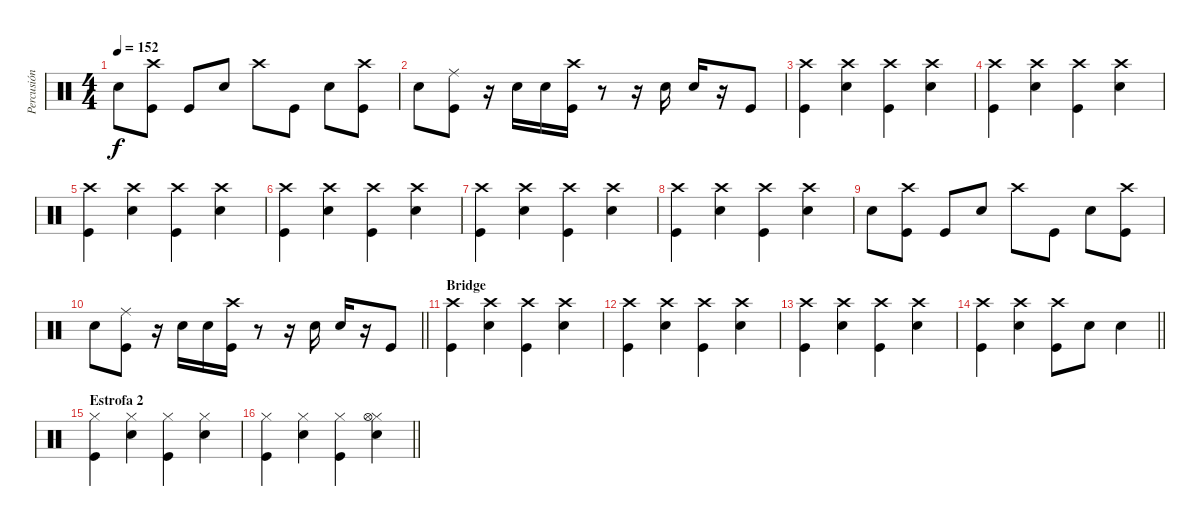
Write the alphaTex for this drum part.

\track ("Percusión" "Percusión") {instrument percussion}
\staff {score}
\articulation defaults
\ts (4 4)
\tempo 152
\clef neutral
\ks c "Snare (hit) 2".8{dy f}
("Kick (hit)" "Crash high (hit)").8 "Kick (hit)".8 "Snare (hit) 2".8 "Crash high (hit)".8 "Kick (hit)".8 "Snare (hit) 2".8 ("Kick (hit)" "Crash high (hit)").8 |
"Snare (hit) 2".8 ("Kick (hit)" "Ride (middle)").8 r.16 "Snare (hit) 2".16 "Snare (hit) 2".16 ("Kick (hit)" "Crash high (hit)").16 r.8 r.16 "Snare (hit) 2".16 "Snare (hit) 2".16 r.16 "Kick (hit)".8 |
("Crash high (hit)" "Kick (hit)").4 ("Snare (hit) 2" "Crash high (hit)").4 ("Crash high (hit)" "Kick (hit)").4 ("Crash high (hit)" "Snare (hit) 2").4 |
("Crash high (hit)" "Kick (hit)").4 ("Crash high (hit)" "Snare (hit) 2").4 ("Crash high (hit)" "Kick (hit)").4 ("Crash high (hit)" "Snare (hit) 2").4 |
("Crash high (hit)" "Kick (hit)").4 ("Crash high (hit)" "Snare (hit) 2").4 ("Crash high (hit)" "Kick (hit)").4 ("Crash high (hit)" "Snare (hit) 2").4 |
("Crash high (hit)" "Kick (hit)").4 ("Crash high (hit)" "Snare (hit) 2").4 ("Crash high (hit)" "Kick (hit)").4 ("Crash high (hit)" "Snare (hit) 2").4 |
("Kick (hit)" "Crash high (hit)").4 ("Crash high (hit)" "Snare (hit) 2").4 ("Crash high (hit)" "Kick (hit)").4 ("Crash high (hit)" "Snare (hit) 2").4 |
("Crash high (hit)" "Kick (hit)").4 ("Crash high (hit)" "Snare (hit) 2").4 ("Crash high (hit)" "Kick (hit)").4 ("Crash high (hit)" "Snare (hit) 2").4 |
"Snare (hit) 2".8 ("Kick (hit)" "Crash high (hit)").8 "Kick (hit)".8 "Snare (hit) 2".8 "Crash high (hit)".8 "Kick (hit)".8 "Snare (hit) 2".8 ("Kick (hit)" "Crash high (hit)").8 |
\barLineRight lightlight "Snare (hit) 2".8
("Kick (hit)" "Ride (middle)").8 r.16 "Snare (hit) 2".16 "Snare (hit) 2".16 ("Kick (hit)" "Crash high (hit)").16 r.8 r.16 "Snare (hit) 2".16 "Snare (hit) 2".16 r.16 "Kick (hit)".8 |
\section ("" "Bridge")
("Kick (hit)" "Crash high (hit)").4 ("Crash high (hit)" "Snare (hit) 2").4 ("Crash high (hit)" "Kick (hit)").4 ("Crash high (hit)" "Snare (hit) 2").4 |
("Crash high (hit)" "Kick (hit)").4 ("Crash high (hit)" "Snare (hit) 2").4 ("Crash high (hit)" "Kick (hit)").4 ("Crash high (hit)" "Snare (hit) 2").4 |
("Kick (hit)" "Crash high (hit)").4 ("Crash high (hit)" "Snare (hit) 2").4 ("Crash high (hit)" "Kick (hit)").4 ("Crash high (hit)" "Snare (hit) 2").4 |
\barLineRight lightlight
("Crash high (hit)" "Kick (hit)").4 ("Crash high (hit)" "Snare (hit) 2").4 ("Crash high (hit)" "Kick (hit)").8 "Snare (hit) 2".8 "Snare (hit) 2".4 |
\section ("" "Estrofa 2")
("Hi-Hat (closed)" "Kick (hit)").4 ("Hi-Hat (closed)" "Snare (hit) 2").4 ("Hi-Hat (closed)" "Kick (hit)").4 ("Hi-Hat (closed)" "Snare (hit) 2").4 |
\barLineRight lightlight
("Hi-Hat (closed)" "Kick (hit)").4 ("Hi-Hat (closed)" "Snare (hit) 2").4 ("Hi-Hat (closed)" "Kick (hit)").4 ("Hi-Hat (closed)" "Snare (hit) 2" "Hi-Hat (open)").4
